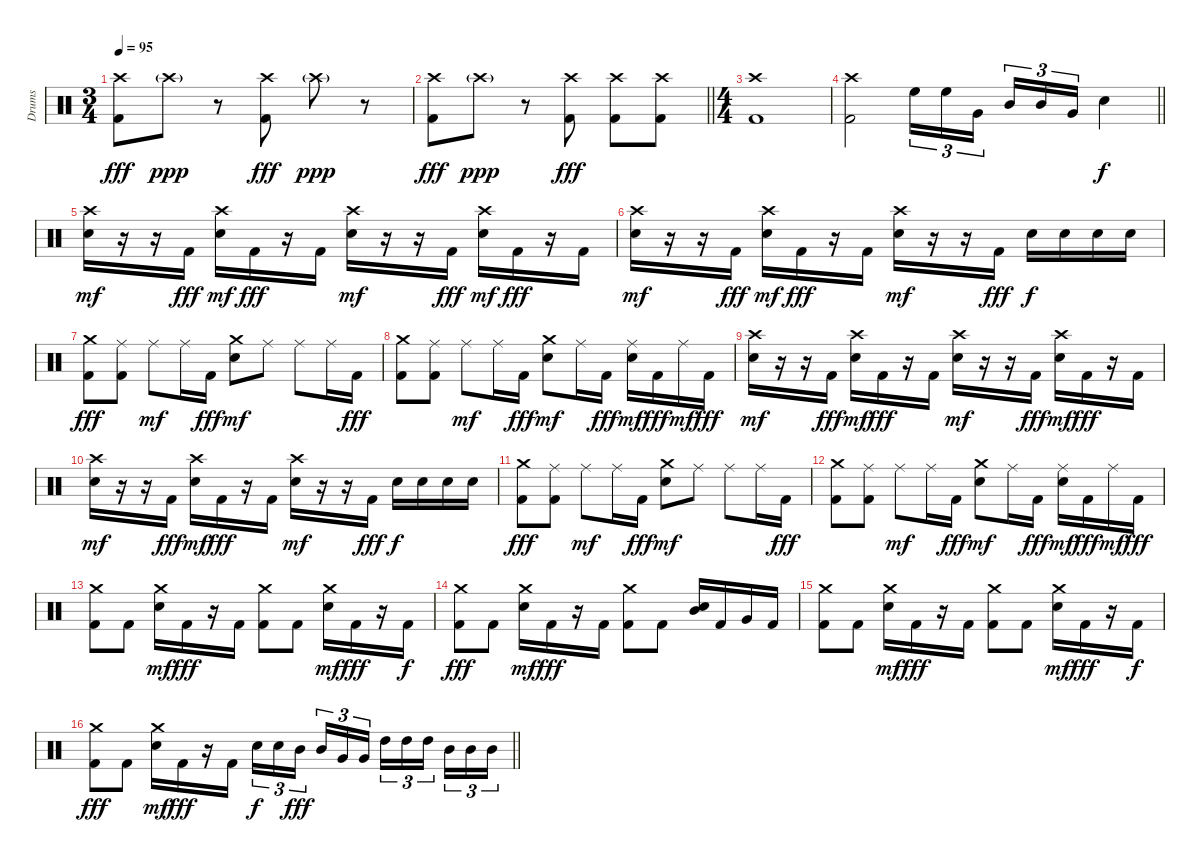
\track ("Drums" "Drums") {instrument percussion}
\staff {score}
\articulation defaults
\ts (3 4)
\tempo 95
\clef neutral
\ks c
("Crash high (hit)" "Kick (hit) 2").8{dy fff} "Crash high (hit)"{g}.8{dy ppp} r.8 ("Crash high (hit)" "Kick (hit) 2").8{dy fff} "Crash high (hit)"{g}.8{dy ppp} r.8 |
\barLineRight lightlight
("Crash high (hit)" "Kick (hit) 2").8{dy fff} "Crash high (hit)"{g}.8{dy ppp} r.8 ("Crash high (hit)" "Kick (hit) 2").8{dy fff} ("Crash high (hit)" "Kick (hit) 2").8 ("Crash high (hit)" "Kick (hit) 2").8 |
\ts (4 4)
("Crash high (hit)" "Kick (hit) 2").1 |
\barLineRight lightlight
("Crash high (hit)" "Kick (hit) 2").2 "High Floor Tom (hit)".16{tu (3 2)} "High Floor Tom (hit)".16{tu (3 2)} "Very Low Tom (hit)".16{tu (3 2) beam splitsecondary} "Mid Tom (hit)".16{tu (3 2)} "Mid Tom (hit)".16{tu (3 2)} "Very Low Tom (hit)".16{tu (3 2)} "Snare (hit) 2".4{dy f} |
("Crash high (hit)" "Snare (hit) 2").16{dy mf} r.16 r.16 "Kick (hit) 2".16{dy fff} ("Crash high (hit)" "Snare (hit) 2").16{dy mf} "Kick (hit) 2".16{dy fff} r.16 "Kick (hit) 2".16 ("Crash high (hit)" "Snare (hit) 2").16{dy mf} r.16 r.16 "Kick (hit) 2".16{dy fff} ("Crash high (hit)" "Snare (hit) 2").16{dy mf} "Kick (hit) 2".16{dy fff} r.16 "Kick (hit) 2".16 |
("Crash high (hit)" "Snare (hit) 2").16{dy mf} r.16 r.16 "Kick (hit) 2".16{dy fff} ("Crash high (hit)" "Snare (hit) 2").16{dy mf} "Kick (hit) 2".16{dy fff} r.16 "Kick (hit) 2".16 ("Crash high (hit)" "Snare (hit) 2").16{dy mf} r.16 r.16 "Kick (hit) 2".16{dy fff} "Snare (hit) 2".16{dy f} "Snare (hit) 2".16 "Snare (hit) 2".16 "Snare (hit) 2".16 |
("Crash medium (hit)" "Kick (hit) 2").8{dy fff} ("Ride (middle)" "Kick (hit) 2").8 "Ride (middle)".8{dy mf} "Ride (middle)".16 "Kick (hit) 2".16{dy fff} ("Crash medium (hit)" "Snare (hit) 2").8{dy mf} "Ride (middle)".8 "Ride (middle)".8 "Ride (middle)".16 "Kick (hit) 2".16{dy fff} |
("Crash medium (hit)" "Kick (hit) 2").8 ("Ride (middle)" "Kick (hit) 2").8 "Ride (middle)".8{dy mf} "Ride (middle)".16 "Kick (hit) 2".16{dy fff} ("Crash medium (hit)" "Snare (hit) 2").8{dy mf} "Ride (middle)".16 "Kick (hit) 2".16{dy fff} ("Ride (middle)" "Snare (hit) 2").16{dy mf} "Kick (hit) 2".16{dy fff} "Ride (middle)".16{dy mf} "Kick (hit) 2".16{dy fff} |
("Crash high (hit)" "Snare (hit) 2").16{dy mf} r.16 r.16 "Kick (hit) 2".16{dy fff} ("Crash high (hit)" "Snare (hit) 2").16{dy mf} "Kick (hit) 2".16{dy fff} r.16 "Kick (hit) 2".16 ("Crash high (hit)" "Snare (hit) 2").16{dy mf} r.16 r.16 "Kick (hit) 2".16{dy fff} ("Crash high (hit)" "Snare (hit) 2").16{dy mf} "Kick (hit) 2".16{dy fff} r.16 "Kick (hit) 2".16 |
("Crash high (hit)" "Snare (hit) 2").16{dy mf} r.16 r.16 "Kick (hit) 2".16{dy fff} ("Crash high (hit)" "Snare (hit) 2").16{dy mf} "Kick (hit) 2".16{dy fff} r.16 "Kick (hit) 2".16 ("Crash high (hit)" "Snare (hit) 2").16{dy mf} r.16 r.16 "Kick (hit) 2".16{dy fff} "Snare (hit) 2".16{dy f} "Snare (hit) 2".16 "Snare (hit) 2".16 "Snare (hit) 2".16 |
("Crash medium (hit)" "Kick (hit) 2").8{dy fff} ("Ride (middle)" "Kick (hit) 2").8 "Ride (middle)".8{dy mf} "Ride (middle)".16 "Kick (hit) 2".16{dy fff} ("Crash medium (hit)" "Snare (hit) 2").8{dy mf} "Ride (middle)".8 "Ride (middle)".8 "Ride (middle)".16 "Kick (hit) 2".16{dy fff} |
("Crash medium (hit)" "Kick (hit) 2").8 ("Ride (middle)" "Kick (hit) 2").8 "Ride (middle)".8{dy mf} "Ride (middle)".16 "Kick (hit) 2".16{dy fff} ("Crash medium (hit)" "Snare (hit) 2").8{dy mf} "Ride (middle)".16 "Kick (hit) 2".16{dy fff} ("Ride (middle)" "Snare (hit) 2").16{dy mf} "Kick (hit) 2".16{dy fff} "Ride (middle)".16{dy mf} "Kick (hit) 2".16{dy fff} |
("Crash medium (hit)" "Kick (hit) 2").8 "Kick (hit) 2".8 ("Crash medium (hit)" "Snare (hit) 2").16{dy mf} "Kick (hit) 2".16{dy fff} r.16 "Kick (hit) 2".16 ("Crash medium (hit)" "Kick (hit) 2").8 "Kick (hit) 2".8 ("Crash medium (hit)" "Snare (hit) 2").16{dy mf} "Kick (hit) 2".16{dy fff} r.16 "Kick (hit) 2".16{dy f} |
("Crash medium (hit)" "Kick (hit) 2").8{dy fff} "Kick (hit) 2".8 ("Crash medium (hit)" "Snare (hit) 2").16{dy mf} "Kick (hit) 2".16{dy fff} r.16 "Kick (hit) 2".16 ("Crash medium (hit)" "Kick (hit) 2").8 "Kick (hit) 2".8 ("Mid Tom (hit)" "Snare (hit) 2").16 "Kick (hit) 2".16 "Very Low Tom (hit)".16 "Kick (hit) 2".16 |
("Crash medium (hit)" "Kick (hit) 2").8 "Kick (hit) 2".8 ("Crash medium (hit)" "Snare (hit) 2").16{dy mf} "Kick (hit) 2".16{dy fff} r.16 "Kick (hit) 2".16 ("Crash medium (hit)" "Kick (hit) 2").8 "Kick (hit) 2".8 ("Crash medium (hit)" "Snare (hit) 2").16{dy mf} "Kick (hit) 2".16{dy fff} r.16 "Kick (hit) 2".16{dy f} |
\barLineRight lightlight
("Crash medium (hit)" "Kick (hit) 2").8{dy fff} "Kick (hit) 2".8 ("Crash medium (hit)" "Snare (hit) 2").16{dy mf} "Kick (hit) 2".16{dy fff} r.16 "Kick (hit) 2".16 "Snare (hit) 2".16{tu (3 2) dy f} "Snare (hit) 2".16{tu (3 2)} "Mid Tom (hit)".16{tu (3 2) dy fff beam splitsecondary} "Mid Tom (hit)".16{tu (3 2)} "Very Low Tom (hit)".16{tu (3 2)} "Very Low Tom (hit)".16{tu (3 2)} "High Tom (hit)".16{tu (3 2)} "High Tom (hit)".16{tu (3 2)} "High Tom (hit)".16{tu (3 2) beam splitsecondary} "Mid Tom (hit)".16{tu (3 2)} "Mid Tom (hit)".16{tu (3 2)} "Mid Tom (hit)".16{tu (3 2)}
